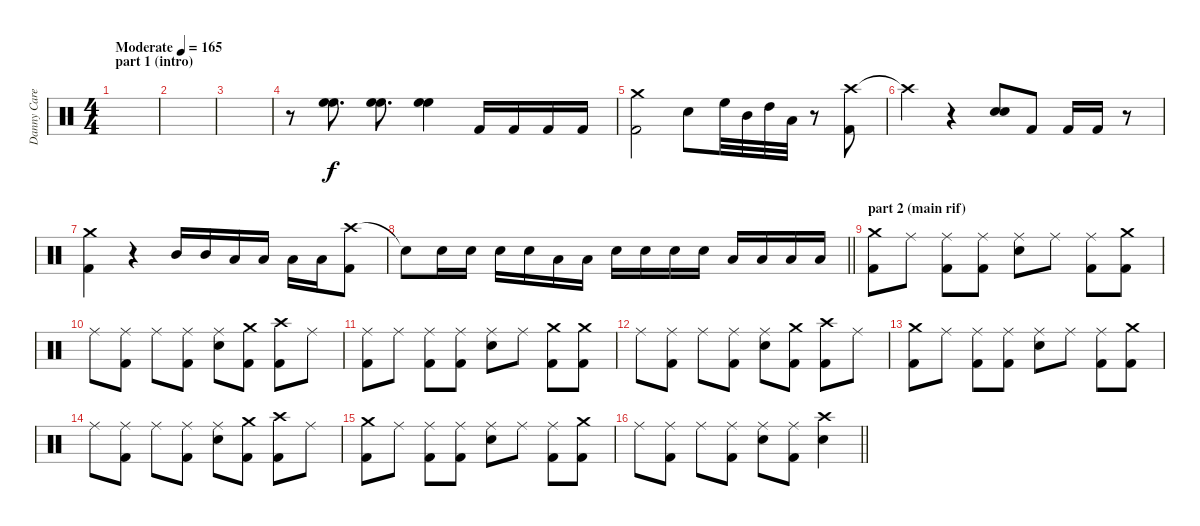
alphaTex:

\track ("Danny Carey / drums" "Danny Care") {instrument percussion}
\staff {score}
\articulation defaults
\ts (4 4)
\section ("" "part 1 (intro)")
\tempo (165 "Moderate")
\clef neutral
\ks c
|
|
|
r.8 ("High Floor Tom (hit)" "High Floor Tom (hit)").8{d bu 120} ("High Floor Tom (hit)" "High Floor Tom (hit)").8{d bu 240} ("High Floor Tom (hit)" "High Floor Tom (hit)").4{bu 240} "Kick (hit) 2".16 "Kick (hit) 2".16 "Kick (hit) 2".16 "Kick (hit) 2".16 |
("Crash medium (hit)" "Kick (hit) 2").2 "Electric Snare (hit)".8 "High Floor Tom (hit)".32 "Mid Tom (hit)".32 "High Tom (hit)".32 "Low Tom (hit)".32 r.8 ("Crash high (hit)" "Kick (hit) 2").8 |
"Crash high (hit)"{t}.4 r.4 ("Electric Snare (hit)" "Electric Snare (hit)").8{bu 240} "Kick (hit) 2".8 "Kick (hit) 2".16 "Kick (hit) 2".16 r.8 |
("Crash medium (hit)" "Kick (hit) 2").4 r.4 "Mid Tom (hit)".16 "Mid Tom (hit)".16 "Low Tom (hit)".16 "Low Tom (hit)".16 "Low Floor Tom (hit)".16 "Low Floor Tom (hit)".16 ("Crash high (hit)" "Kick (hit) 2").8 |
\barLineRight lightlight "Snare (hit)"{t}.8 "Electric Snare (hit)".16 "Electric Snare (hit)".16 "Electric Snare (hit)".16 "Electric Snare (hit)".16 "Low Tom (hit)".16 "Low Tom (hit)".16 "Electric Snare (hit)".16 "Electric Snare (hit)".16 "Electric Snare (hit)".16 "Electric Snare (hit)".16 "Low Tom (hit)".16 "Low Tom (hit)".16 "Low Floor Tom (hit)".16 "Low Floor Tom (hit)".16
|
\section ("" "part 2 (main rif)")
("Crash medium (hit)" "Kick (hit) 2").8 "Ride (middle)".8 ("Ride (middle)" "Kick (hit) 2").8 ("Ride (middle)" "Kick (hit) 2").8 ("Ride (middle)" "Electric Snare (hit)").8 "Ride (middle)".8 ("Ride (middle)" "Kick (hit) 2").8 ("Crash medium (hit)" "Kick (hit) 2").8 |
"Ride (middle)".8 ("Ride (middle)" "Kick (hit) 2").8 "Ride (middle)".8 ("Ride (middle)" "Kick (hit) 2").8 ("Ride (middle)" "Electric Snare (hit)").8 ("Crash medium (hit)" "Kick (hit) 2").8 ("Crash high (hit)" "Kick (hit) 2").8 "Ride (middle)".8 |
("Ride (middle)" "Kick (hit) 2").8 "Ride (middle)".8 ("Ride (middle)" "Kick (hit) 2").8 ("Ride (middle)" "Kick (hit) 2").8 ("Ride (middle)" "Electric Snare (hit)").8 "Ride (middle)".8 ("Crash medium (hit)" "Kick (hit) 2").8 ("Crash medium (hit)" "Kick (hit) 2").8 |
"Ride (middle)".8 ("Ride (middle)" "Kick (hit) 2").8 "Ride (middle)".8 ("Ride (middle)" "Kick (hit) 2").8 ("Ride (middle)" "Electric Snare (hit)").8 ("Crash medium (hit)" "Kick (hit) 2").8 ("Crash high (hit)" "Kick (hit) 2").8 "Ride (middle)".8 |
("Crash medium (hit)" "Kick (hit) 2").8 "Ride (middle)".8 ("Ride (middle)" "Kick (hit) 2").8 ("Ride (middle)" "Kick (hit) 2").8 ("Ride (middle)" "Electric Snare (hit)").8 "Ride (middle)".8 ("Ride (middle)" "Kick (hit) 2").8 ("Crash medium (hit)" "Kick (hit) 2").8 |
"Ride (middle)".8 ("Ride (middle)" "Kick (hit) 2").8 "Ride (middle)".8 ("Ride (middle)" "Kick (hit) 2").8 ("Ride (middle)" "Electric Snare (hit)").8 ("Crash medium (hit)" "Kick (hit) 2").8 ("Crash high (hit)" "Kick (hit) 2").8 "Ride (middle)".8 |
("Crash medium (hit)" "Kick (hit) 2").8 "Ride (middle)".8 ("Ride (middle)" "Kick (hit) 2").8 ("Ride (middle)" "Kick (hit) 2").8 ("Ride (middle)" "Electric Snare (hit)").8 "Ride (middle)".8 ("Ride (middle)" "Kick (hit) 2").8 ("Crash medium (hit)" "Kick (hit) 2").8 |
\barLineRight lightlight "Ride (middle)".8
("Ride (middle)" "Kick (hit) 2").8 "Ride (middle)".8 ("Ride (middle)" "Kick (hit) 2").8 ("Ride (middle)" "Electric Snare (hit)").8 ("Ride (middle)" "Kick (hit) 2").8 ("Crash high (hit)" "Electric Snare (hit)").4
